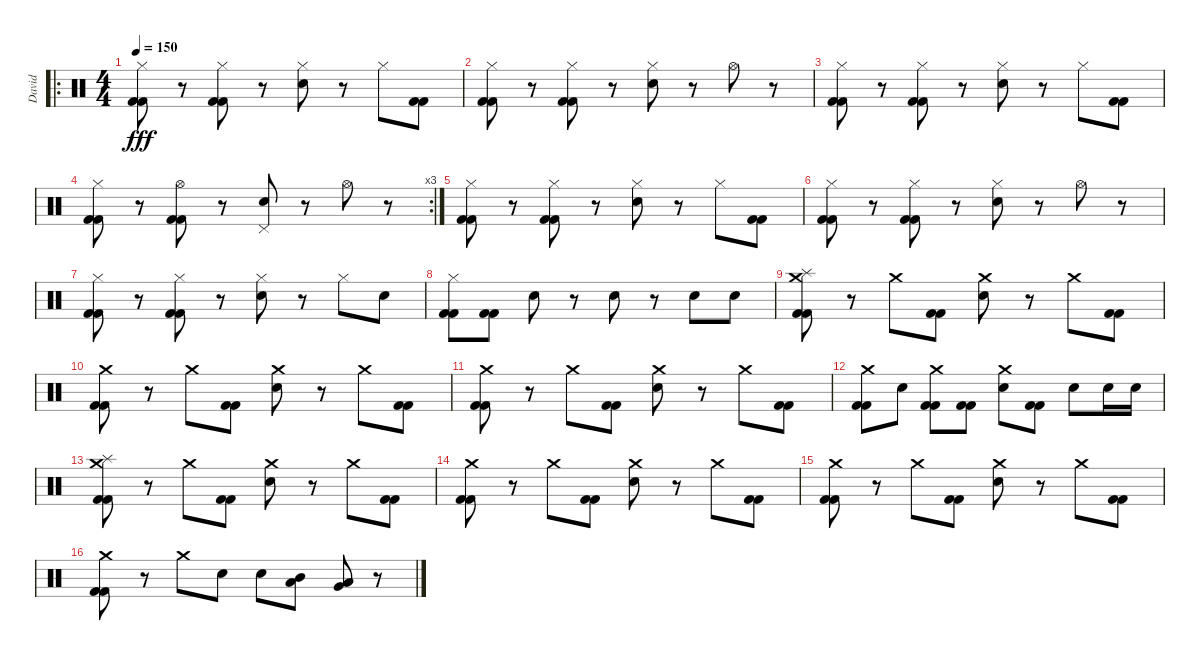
\track ("David" "David") {instrument percussion}
\staff {score}
\articulation defaults
\ro
\ts (4 4)
\tempo 150
\clef neutral
\ks c
("Hi-Hat (closed)" "Kick (hit) 2" "Kick (hit) 2").8{dy fff} r.8 ("Hi-Hat (closed)" "Kick (hit) 2" "Kick (hit) 2").8 r.8 ("Hi-Hat (closed)" "Electric Snare (hit)").8 r.8 "Hi-Hat (closed)".8 ("Kick (hit) 2" "Kick (hit) 2").8 |
("Hi-Hat (closed)" "Kick (hit) 2" "Kick (hit) 2").8 r.8 ("Hi-Hat (closed)" "Kick (hit) 2" "Kick (hit) 2").8 r.8 ("Hi-Hat (closed)" "Electric Snare (hit)").8 r.8 "Hi-Hat (open)".8 r.8 |
("Hi-Hat (closed)" "Kick (hit) 2" "Kick (hit) 2").8 r.8 ("Hi-Hat (closed)" "Kick (hit) 2" "Kick (hit) 2").8 r.8 ("Hi-Hat (closed)" "Electric Snare (hit)").8 r.8 "Hi-Hat (closed)".8 ("Kick (hit) 2" "Kick (hit) 2").8 |
\rc 3
("Hi-Hat (closed)" "Kick (hit) 2" "Kick (hit) 2").8 r.8 ("Hi-Hat (open)" "Kick (hit) 2" "Kick (hit) 2").8 r.8 ("Pedal Hi-Hat (hit)" "Electric Snare (hit)").8 r.8 "Hi-Hat (open)".8 r.8 |
("Hi-Hat (closed)" "Kick (hit) 2" "Kick (hit) 2").8 r.8 ("Hi-Hat (closed)" "Kick (hit) 2" "Kick (hit) 2").8 r.8 ("Hi-Hat (closed)" "Electric Snare (hit)").8 r.8 "Hi-Hat (closed)".8 ("Kick (hit) 2" "Kick (hit) 2").8 |
("Hi-Hat (closed)" "Kick (hit) 2" "Kick (hit) 2").8 r.8 ("Hi-Hat (closed)" "Kick (hit) 2" "Kick (hit) 2").8 r.8 ("Hi-Hat (closed)" "Electric Snare (hit)").8 r.8 "Hi-Hat (open)".8 r.8 |
("Hi-Hat (closed)" "Kick (hit) 2" "Kick (hit) 2").8 r.8 ("Hi-Hat (closed)" "Kick (hit) 2" "Kick (hit) 2").8 r.8 ("Hi-Hat (closed)" "Electric Snare (hit)").8 r.8 "Hi-Hat (closed)".8 "Electric Snare (hit)".8 |
("Hi-Hat (closed)" "Kick (hit) 2" "Kick (hit) 2").8 ("Kick (hit) 2" "Kick (hit) 2").8 "Electric Snare (hit)".8 r.8 "Electric Snare (hit)".8 r.8 "Electric Snare (hit)".8 "Electric Snare (hit)".8 |
("Splash (hit)" "Crash medium (hit)" "Kick (hit) 2" "Kick (hit) 2").8 r.8 "Crash medium (hit)".8 ("Kick (hit) 2" "Kick (hit) 2").8 ("Crash medium (hit)" "Electric Snare (hit)").8 r.8 "Crash medium (hit)".8 ("Kick (hit) 2" "Kick (hit) 2").8 |
("Crash medium (hit)" "Kick (hit) 2" "Kick (hit) 2").8 r.8 "Crash medium (hit)".8 ("Kick (hit) 2" "Kick (hit) 2").8 ("Crash medium (hit)" "Electric Snare (hit)").8 r.8 "Crash medium (hit)".8 ("Kick (hit) 2" "Kick (hit) 2").8 |
("Crash medium (hit)" "Kick (hit) 2" "Kick (hit) 2").8 r.8 "Crash medium (hit)".8 ("Kick (hit) 2" "Kick (hit) 2").8 ("Crash medium (hit)" "Electric Snare (hit)").8 r.8 "Crash medium (hit)".8 ("Kick (hit) 2" "Kick (hit) 2").8 |
("Crash medium (hit)" "Kick (hit) 2" "Kick (hit) 2").8 "Electric Snare (hit)".8 ("Crash medium (hit)" "Kick (hit) 2" "Kick (hit) 2").8 ("Kick (hit) 2" "Kick (hit) 2").8 ("Crash medium (hit)" "Electric Snare (hit)").8 ("Kick (hit) 2" "Kick (hit) 2").8 "Electric Snare (hit)".8 "Electric Snare (hit)".16 "Electric Snare (hit)".16 |
("Splash (hit)" "Crash medium (hit)" "Kick (hit) 2" "Kick (hit) 2").8 r.8 "Crash medium (hit)".8 ("Kick (hit) 2" "Kick (hit) 2").8 ("Crash medium (hit)" "Electric Snare (hit)").8 r.8 "Crash medium (hit)".8 ("Kick (hit) 2" "Kick (hit) 2").8 |
("Crash medium (hit)" "Kick (hit) 2" "Kick (hit) 2").8 r.8 "Crash medium (hit)".8 ("Kick (hit) 2" "Kick (hit) 2").8 ("Crash medium (hit)" "Electric Snare (hit)").8 r.8 "Crash medium (hit)".8 ("Kick (hit) 2" "Kick (hit) 2").8 |
("Crash medium (hit)" "Kick (hit) 2" "Kick (hit) 2").8 r.8 "Crash medium (hit)".8 ("Kick (hit) 2" "Kick (hit) 2").8 ("Crash medium (hit)" "Electric Snare (hit)").8 r.8 "Crash medium (hit)".8 ("Kick (hit) 2" "Kick (hit) 2").8 |
("Crash medium (hit)" "Kick (hit) 2" "Kick (hit) 2").8 r.8 "Crash medium (hit)".8 "Electric Snare (hit)".8 "Electric Snare (hit)".8 ("Mid Tom (hit)" "Low Tom (hit)").8 ("Low Floor Tom (hit)" "Very Low Tom (hit)").8 r.8
